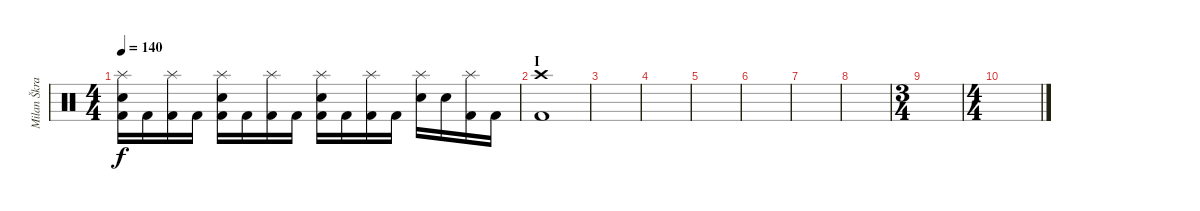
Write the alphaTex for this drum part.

\track ("Milan Škrabal" "Milan Škra") {instrument percussion}
\staff {score}
\articulation defaults
\ts (4 4)
\tempo 140
\clef neutral
\ks c
("Splash (hit)" "Electric Snare (hit)" "Kick (hit) 2").16{dy f} "Kick (hit) 2".16 ("Splash (hit)" "Kick (hit) 2").16 "Kick (hit) 2".16 ("Splash (hit)" "Electric Snare (hit)" "Kick (hit) 2").16 "Kick (hit) 2".16 ("Splash (hit)" "Kick (hit) 2").16 "Kick (hit) 2".16 ("Splash (hit)" "Electric Snare (hit)" "Kick (hit) 2").16 "Kick (hit) 2".16 ("Splash (hit)" "Kick (hit) 2").16 "Kick (hit) 2".16 ("Splash (hit)" "Electric Snare (hit)").16 "Electric Snare (hit)".16 ("Splash (hit)" "Kick (hit) 2").16 "Kick (hit) 2".16 |
\section ("" "I")
("Crash high (hit)" "Kick (hit) 2").1 |
|
|
|
|
|
|
\ts (3 4)
|
\ts (4 4)
